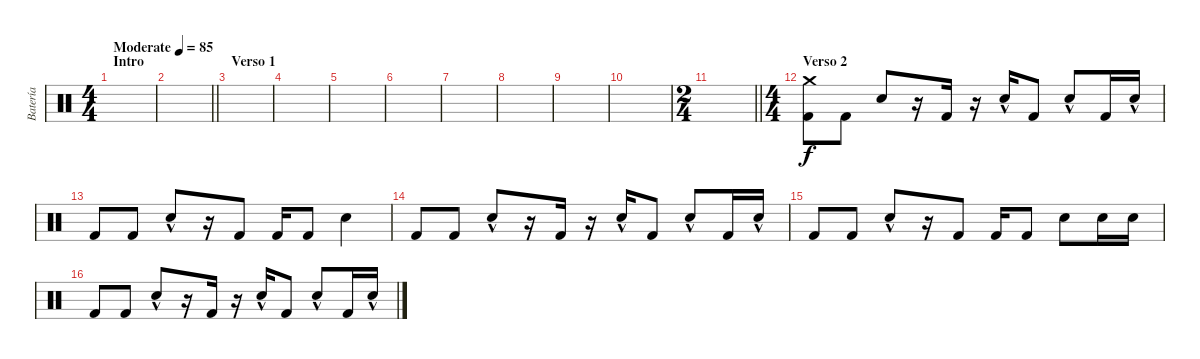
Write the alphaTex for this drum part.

\track ("Batería" "Batería") {instrument percussion}
\staff {score}
\articulation defaults
\ts (4 4)
\section ("" "Intro")
\tempo (85 "Moderate")
\clef neutral
\ks c
|
\barLineRight lightlight
|
\section ("" "Verso 1")
|
|
|
|
|
|
|
|
\ts (2 4)
\barLineRight lightlight
|
\ts (4 4)
\section ("" "Verso 2")
("Kick (hit) 2" "Crash medium (hit)").8 "Kick (hit) 2".8 "Electric Snare (hit)".8 r.16 "Kick (hit) 2".16 r.16 "Electric Snare (hit)"{hac}.16 "Kick (hit) 2".8 "Electric Snare (hit)"{hac}.8 "Kick (hit) 2".16 "Electric Snare (hit)"{hac}.16 |
"Kick (hit) 2".8 "Kick (hit) 2".8 "Electric Snare (hit)"{hac}.8 r.16 "Kick (hit) 2".8 "Kick (hit) 2".16 "Kick (hit) 2".8 "Electric Snare (hit)".4 |
"Kick (hit) 2".8 "Kick (hit) 2".8 "Electric Snare (hit)"{hac}.8 r.16 "Kick (hit) 2".16 r.16 "Electric Snare (hit)"{hac}.16 "Kick (hit) 2".8 "Electric Snare (hit)"{hac}.8 "Kick (hit) 2".16 "Electric Snare (hit)"{hac}.16 |
"Kick (hit) 2".8 "Kick (hit) 2".8 "Electric Snare (hit)"{hac}.8 r.16 "Kick (hit) 2".8 "Kick (hit) 2".16 "Kick (hit) 2".8 "Electric Snare (hit)".8 "Electric Snare (hit)".16 "Electric Snare (hit)".16 |
"Kick (hit) 2".8 "Kick (hit) 2".8 "Electric Snare (hit)"{hac}.8 r.16 "Kick (hit) 2".16 r.16 "Electric Snare (hit)"{hac}.16 "Kick (hit) 2".8 "Electric Snare (hit)"{hac}.8 "Kick (hit) 2".16 "Electric Snare (hit)"{hac}.16
